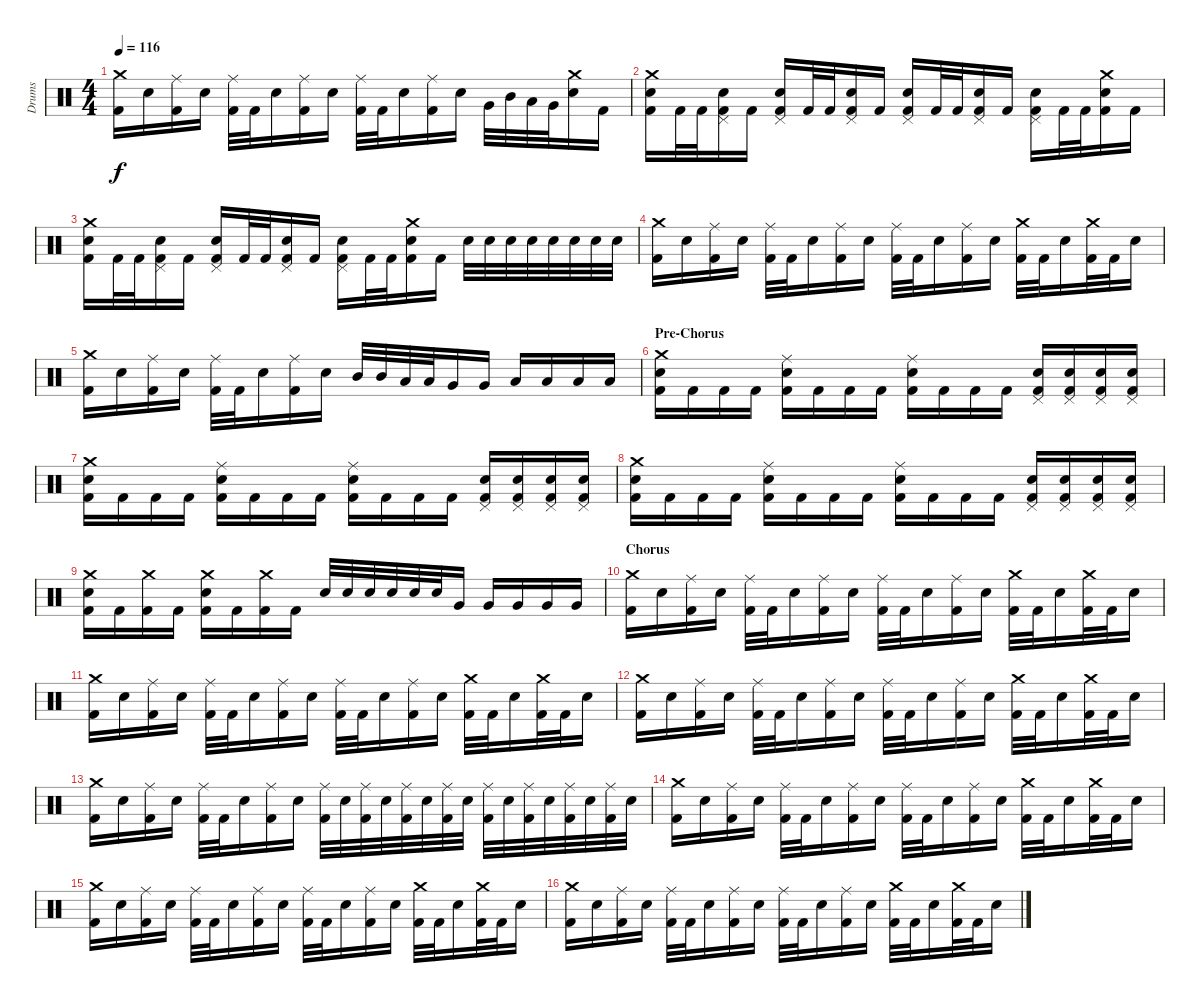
\track ("Drums" "Drums") {instrument percussion}
\staff {score}
\articulation defaults
\ts (4 4)
\tempo 116
\clef neutral
\ks c
("Crash medium (hit)" "Kick (hit) 2").16{dy f} "Electric Snare (hit)".16 ("Ride (middle)" "Kick (hit) 2").16 "Electric Snare (hit)".16 ("Ride (middle)" "Kick (hit) 2").32 "Kick (hit) 2".32 "Electric Snare (hit)".16 ("Ride (middle)" "Kick (hit) 2").16 "Electric Snare (hit)".16 ("Ride (middle)" "Kick (hit) 2").32 "Kick (hit) 2".32 "Electric Snare (hit)".16 ("Ride (middle)" "Kick (hit) 2").16 "Electric Snare (hit)".16 "Very Low Tom (hit)".32 "Mid Tom (hit)".32 "Low Tom (hit)".32 "Very Low Tom (hit)".32 ("Crash medium (hit)" "Electric Snare (hit)").16 "Kick (hit) 2".16 |
("Crash medium (hit)" "Electric Snare (hit)" "Kick (hit) 2").16 "Kick (hit) 2".32 "Kick (hit) 2".32 ("Pedal Hi-Hat (hit)" "Electric Snare (hit)" "Kick (hit) 2").16 "Kick (hit) 2".16 ("Pedal Hi-Hat (hit)" "Electric Snare (hit)" "Kick (hit) 2").16 "Kick (hit) 2".32 "Kick (hit) 2".32 ("Pedal Hi-Hat (hit)" "Electric Snare (hit)" "Kick (hit) 2").16 "Kick (hit) 2".16 ("Pedal Hi-Hat (hit)" "Electric Snare (hit)" "Kick (hit) 2").16 "Kick (hit) 2".32 "Kick (hit) 2".32 ("Pedal Hi-Hat (hit)" "Electric Snare (hit)" "Kick (hit) 2").16 "Kick (hit) 2".16 ("Pedal Hi-Hat (hit)" "Electric Snare (hit)" "Kick (hit) 2").16 "Kick (hit) 2".32 "Kick (hit) 2".32 ("Crash medium (hit)" "Electric Snare (hit)" "Kick (hit) 2").16 "Kick (hit) 2".16 |
("Crash medium (hit)" "Electric Snare (hit)" "Kick (hit) 2").16 "Kick (hit) 2".32 "Kick (hit) 2".32 ("Pedal Hi-Hat (hit)" "Electric Snare (hit)" "Kick (hit) 2").16 "Kick (hit) 2".16 ("Pedal Hi-Hat (hit)" "Electric Snare (hit)" "Kick (hit) 2").16 "Kick (hit) 2".32 "Kick (hit) 2".32 ("Pedal Hi-Hat (hit)" "Electric Snare (hit)" "Kick (hit) 2").16 "Kick (hit) 2".16 ("Pedal Hi-Hat (hit)" "Electric Snare (hit)" "Kick (hit) 2").16 "Kick (hit) 2".32 "Kick (hit) 2".32 ("Crash medium (hit)" "Electric Snare (hit)" "Kick (hit) 2").16 "Kick (hit) 2".16 "Electric Snare (hit)".32 "Electric Snare (hit)".32 "Electric Snare (hit)".32 "Electric Snare (hit)".32 "Electric Snare (hit)".32 "Electric Snare (hit)".32 "Electric Snare (hit)".32 "Electric Snare (hit)".32 |
("Crash medium (hit)" "Kick (hit) 2").16 "Electric Snare (hit)".16 ("Ride (middle)" "Kick (hit) 2").16 "Electric Snare (hit)".16 ("Ride (middle)" "Kick (hit) 2").32 "Kick (hit) 2".32 "Electric Snare (hit)".16 ("Ride (middle)" "Kick (hit) 2").16 "Electric Snare (hit)".16 ("Ride (middle)" "Kick (hit) 2").32 "Kick (hit) 2".32 "Electric Snare (hit)".16 ("Ride (middle)" "Kick (hit) 2").16 "Electric Snare (hit)".16 ("Crash medium (hit)" "Kick (hit) 2").32 "Kick (hit) 2".32 "Electric Snare (hit)".16 ("Crash medium (hit)" "Kick (hit) 2").32 "Kick (hit) 2".32 "Electric Snare (hit)".16 |
("Crash medium (hit)" "Kick (hit) 2").16 "Electric Snare (hit)".16 ("Ride (middle)" "Kick (hit) 2").16 "Electric Snare (hit)".16 ("Ride (middle)" "Kick (hit) 2").32 "Kick (hit) 2".32 "Electric Snare (hit)".16 ("Ride (middle)" "Kick (hit) 2").16 "Electric Snare (hit)".16 "Mid Tom (hit)".32 "Mid Tom (hit)".32 "Low Tom (hit)".32 "Low Tom (hit)".32 "Very Low Tom (hit)".16 "Very Low Tom (hit)".16 "Low Floor Tom (hit)".16 "Low Floor Tom (hit)".16 "Low Floor Tom (hit)".16 "Low Floor Tom (hit)".16 |
\section ("" "Pre-Chorus")
("Crash medium (hit)" "Electric Snare (hit)" "Kick (hit) 2").16 "Kick (hit) 2".16 "Kick (hit) 2".16 "Kick (hit) 2".16 ("Ride (middle)" "Electric Snare (hit)" "Kick (hit) 2").16 "Kick (hit) 2".16 "Kick (hit) 2".16 "Kick (hit) 2".16 ("Ride (middle)" "Electric Snare (hit)" "Kick (hit) 2").16 "Kick (hit) 2".16 "Kick (hit) 2".16 "Kick (hit) 2".16 ("Pedal Hi-Hat (hit)" "Electric Snare (hit)" "Kick (hit) 2").16 ("Pedal Hi-Hat (hit)" "Electric Snare (hit)" "Kick (hit) 2").16 ("Pedal Hi-Hat (hit)" "Electric Snare (hit)" "Kick (hit) 2").16 ("Pedal Hi-Hat (hit)" "Electric Snare (hit)" "Kick (hit) 2").16 |
("Crash medium (hit)" "Electric Snare (hit)" "Kick (hit) 2").16 "Kick (hit) 2".16 "Kick (hit) 2".16 "Kick (hit) 2".16 ("Ride (middle)" "Electric Snare (hit)" "Kick (hit) 2").16 "Kick (hit) 2".16 "Kick (hit) 2".16 "Kick (hit) 2".16 ("Ride (middle)" "Electric Snare (hit)" "Kick (hit) 2").16 "Kick (hit) 2".16 "Kick (hit) 2".16 "Kick (hit) 2".16 ("Pedal Hi-Hat (hit)" "Electric Snare (hit)" "Kick (hit) 2").16 ("Pedal Hi-Hat (hit)" "Electric Snare (hit)" "Kick (hit) 2").16 ("Pedal Hi-Hat (hit)" "Electric Snare (hit)" "Kick (hit) 2").16 ("Pedal Hi-Hat (hit)" "Electric Snare (hit)" "Kick (hit) 2").16 |
("Crash medium (hit)" "Electric Snare (hit)" "Kick (hit) 2").16 "Kick (hit) 2".16 "Kick (hit) 2".16 "Kick (hit) 2".16 ("Ride (middle)" "Electric Snare (hit)" "Kick (hit) 2").16 "Kick (hit) 2".16 "Kick (hit) 2".16 "Kick (hit) 2".16 ("Ride (middle)" "Electric Snare (hit)" "Kick (hit) 2").16 "Kick (hit) 2".16 "Kick (hit) 2".16 "Kick (hit) 2".16 ("Pedal Hi-Hat (hit)" "Electric Snare (hit)" "Kick (hit) 2").16 ("Pedal Hi-Hat (hit)" "Electric Snare (hit)" "Kick (hit) 2").16 ("Pedal Hi-Hat (hit)" "Electric Snare (hit)" "Kick (hit) 2").16 ("Pedal Hi-Hat (hit)" "Electric Snare (hit)" "Kick (hit) 2").16 |
("Crash medium (hit)" "Electric Snare (hit)" "Kick (hit) 2").16 "Kick (hit) 2".16 ("Crash medium (hit)" "Kick (hit) 2").16 "Kick (hit) 2".16 ("Crash medium (hit)" "Electric Snare (hit)" "Kick (hit) 2").16 "Kick (hit) 2".16 ("Crash medium (hit)" "Kick (hit) 2").16 "Kick (hit) 2".16 "Electric Snare (hit)".32 "Electric Snare (hit)".32 "Electric Snare (hit)".32 "Electric Snare (hit)".32 "Electric Snare (hit)".32 "Electric Snare (hit)".32 "Very Low Tom (hit)".16 "Very Low Tom (hit)".16 "Very Low Tom (hit)".16 "Very Low Tom (hit)".16 "Very Low Tom (hit)".16 |
\section ("" "Chorus")
("Crash medium (hit)" "Kick (hit) 2").16 "Electric Snare (hit)".16 ("Ride (middle)" "Kick (hit) 2").16 "Electric Snare (hit)".16 ("Ride (middle)" "Kick (hit) 2").32 "Kick (hit) 2".32 "Electric Snare (hit)".16 ("Ride (middle)" "Kick (hit) 2").16 "Electric Snare (hit)".16 ("Ride (middle)" "Kick (hit) 2").32 "Kick (hit) 2".32 "Electric Snare (hit)".16 ("Ride (middle)" "Kick (hit) 2").16 "Electric Snare (hit)".16 ("Crash medium (hit)" "Kick (hit) 2").32 "Kick (hit) 2".32 "Electric Snare (hit)".16 ("Crash medium (hit)" "Kick (hit) 2").32 "Kick (hit) 2".32 "Electric Snare (hit)".16 |
("Crash medium (hit)" "Kick (hit) 2").16 "Electric Snare (hit)".16 ("Ride (middle)" "Kick (hit) 2").16 "Electric Snare (hit)".16 ("Ride (middle)" "Kick (hit) 2").32 "Kick (hit) 2".32 "Electric Snare (hit)".16 ("Ride (middle)" "Kick (hit) 2").16 "Electric Snare (hit)".16 ("Ride (middle)" "Kick (hit) 2").32 "Kick (hit) 2".32 "Electric Snare (hit)".16 ("Ride (middle)" "Kick (hit) 2").16 "Electric Snare (hit)".16 ("Crash medium (hit)" "Kick (hit) 2").32 "Kick (hit) 2".32 "Electric Snare (hit)".16 ("Crash medium (hit)" "Kick (hit) 2").32 "Kick (hit) 2".32 "Electric Snare (hit)".16 |
("Crash medium (hit)" "Kick (hit) 2").16 "Electric Snare (hit)".16 ("Ride (middle)" "Kick (hit) 2").16 "Electric Snare (hit)".16 ("Ride (middle)" "Kick (hit) 2").32 "Kick (hit) 2".32 "Electric Snare (hit)".16 ("Ride (middle)" "Kick (hit) 2").16 "Electric Snare (hit)".16 ("Ride (middle)" "Kick (hit) 2").32 "Kick (hit) 2".32 "Electric Snare (hit)".16 ("Ride (middle)" "Kick (hit) 2").16 "Electric Snare (hit)".16 ("Crash medium (hit)" "Kick (hit) 2").32 "Kick (hit) 2".32 "Electric Snare (hit)".16 ("Crash medium (hit)" "Kick (hit) 2").32 "Kick (hit) 2".32 "Electric Snare (hit)".16 |
("Crash medium (hit)" "Kick (hit) 2").16 "Electric Snare (hit)".16 ("Ride (middle)" "Kick (hit) 2").16 "Electric Snare (hit)".16 ("Ride (middle)" "Kick (hit) 2").32 "Kick (hit) 2".32 "Electric Snare (hit)".16 ("Ride (middle)" "Kick (hit) 2").16 "Electric Snare (hit)".16 ("Ride (middle)" "Kick (hit) 2").32 "Electric Snare (hit)".32 ("Ride (middle)" "Kick (hit) 2").32 "Electric Snare (hit)".32 ("Ride (middle)" "Kick (hit) 2").32 "Electric Snare (hit)".32 ("Ride (middle)" "Kick (hit) 2").32 "Electric Snare (hit)".32 ("Ride (middle)" "Kick (hit) 2").32 "Electric Snare (hit)".32 ("Ride (middle)" "Kick (hit) 2").32 "Electric Snare (hit)".32 ("Ride (middle)" "Kick (hit) 2").32 "Electric Snare (hit)".32 ("Ride (middle)" "Kick (hit) 2").32 "Electric Snare (hit)".32 |
("Crash medium (hit)" "Kick (hit) 2").16 "Electric Snare (hit)".16 ("Ride (middle)" "Kick (hit) 2").16 "Electric Snare (hit)".16 ("Ride (middle)" "Kick (hit) 2").32 "Kick (hit) 2".32 "Electric Snare (hit)".16 ("Ride (middle)" "Kick (hit) 2").16 "Electric Snare (hit)".16 ("Ride (middle)" "Kick (hit) 2").32 "Kick (hit) 2".32 "Electric Snare (hit)".16 ("Ride (middle)" "Kick (hit) 2").16 "Electric Snare (hit)".16 ("Crash medium (hit)" "Kick (hit) 2").32 "Kick (hit) 2".32 "Electric Snare (hit)".16 ("Crash medium (hit)" "Kick (hit) 2").32 "Kick (hit) 2".32 "Electric Snare (hit)".16 |
("Crash medium (hit)" "Kick (hit) 2").16 "Electric Snare (hit)".16 ("Ride (middle)" "Kick (hit) 2").16 "Electric Snare (hit)".16 ("Ride (middle)" "Kick (hit) 2").32 "Kick (hit) 2".32 "Electric Snare (hit)".16 ("Ride (middle)" "Kick (hit) 2").16 "Electric Snare (hit)".16 ("Ride (middle)" "Kick (hit) 2").32 "Kick (hit) 2".32 "Electric Snare (hit)".16 ("Ride (middle)" "Kick (hit) 2").16 "Electric Snare (hit)".16 ("Crash medium (hit)" "Kick (hit) 2").32 "Kick (hit) 2".32 "Electric Snare (hit)".16 ("Crash medium (hit)" "Kick (hit) 2").32 "Kick (hit) 2".32 "Electric Snare (hit)".16 |
("Crash medium (hit)" "Kick (hit) 2").16 "Electric Snare (hit)".16 ("Ride (middle)" "Kick (hit) 2").16 "Electric Snare (hit)".16 ("Ride (middle)" "Kick (hit) 2").32 "Kick (hit) 2".32 "Electric Snare (hit)".16 ("Ride (middle)" "Kick (hit) 2").16 "Electric Snare (hit)".16 ("Ride (middle)" "Kick (hit) 2").32 "Kick (hit) 2".32 "Electric Snare (hit)".16 ("Ride (middle)" "Kick (hit) 2").16 "Electric Snare (hit)".16 ("Crash medium (hit)" "Kick (hit) 2").32 "Kick (hit) 2".32 "Electric Snare (hit)".16 ("Crash medium (hit)" "Kick (hit) 2").32 "Kick (hit) 2".32 "Electric Snare (hit)".16
